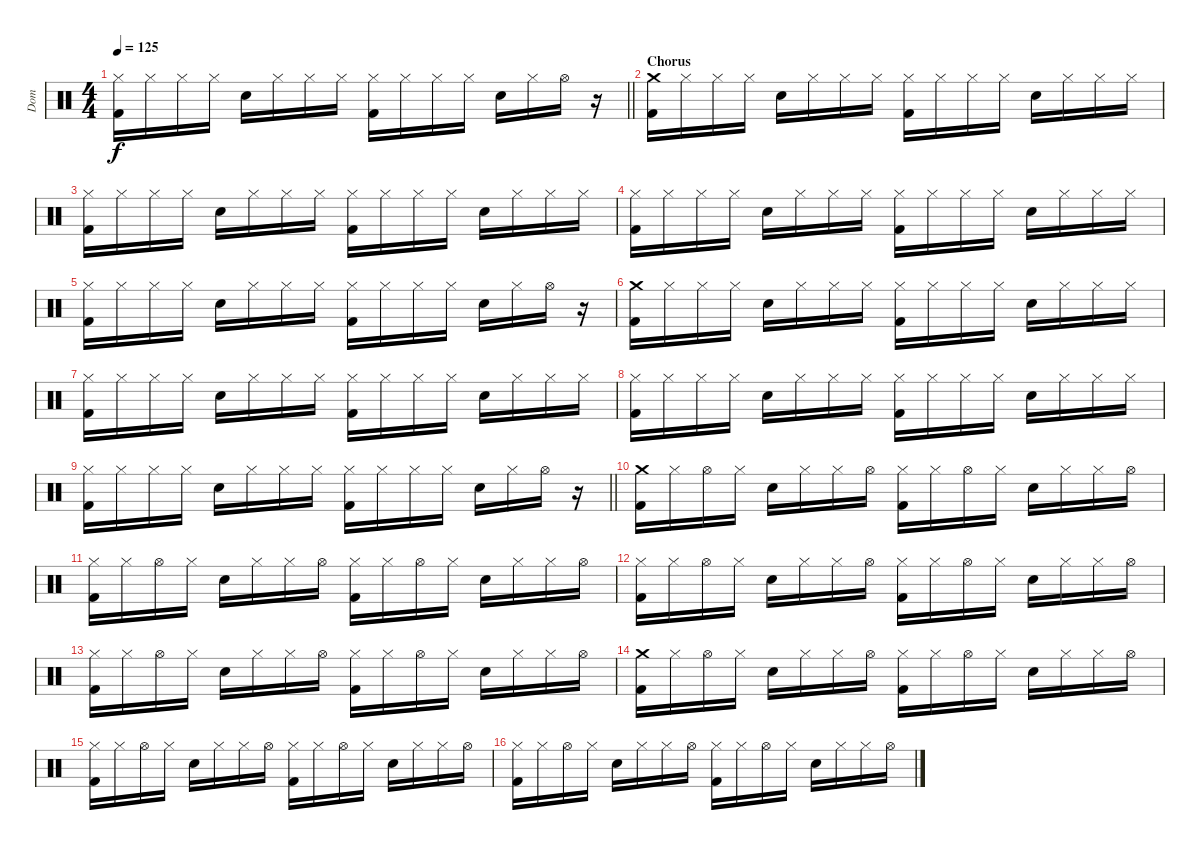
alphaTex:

\track ("Dom" "Dom") {instrument percussion}
\staff {score}
\articulation defaults
\ts (4 4)
\tempo 125
\clef neutral
\barLineRight lightlight
\ks c
("Hi-Hat (closed)" "Kick (hit) 2").16{dy f} "Hi-Hat (closed)".16 "Hi-Hat (closed)".16 "Hi-Hat (closed)".16 "Snare (hit) 2".16 "Hi-Hat (closed)".16 "Hi-Hat (closed)".16 "Hi-Hat (closed)".16 ("Hi-Hat (closed)" "Kick (hit) 2").16 "Hi-Hat (closed)".16 "Hi-Hat (closed)".16 "Hi-Hat (closed)".16 "Snare (hit) 2".16 "Hi-Hat (closed)".16 "Hi-Hat (open)".16 r.16 |
\section ("" "Chorus")
("Crash medium (hit)" "Kick (hit) 2").16 "Hi-Hat (closed)".16 "Hi-Hat (closed)".16 "Hi-Hat (closed)".16 "Snare (hit) 2".16 "Hi-Hat (closed)".16 "Hi-Hat (closed)".16 "Hi-Hat (closed)".16 ("Hi-Hat (closed)" "Kick (hit) 2").16 "Hi-Hat (closed)".16 "Hi-Hat (closed)".16 "Hi-Hat (closed)".16 "Snare (hit) 2".16 "Hi-Hat (closed)".16 "Hi-Hat (closed)".16 "Hi-Hat (closed)".16 |
("Hi-Hat (closed)" "Kick (hit) 2").16 "Hi-Hat (closed)".16 "Hi-Hat (closed)".16 "Hi-Hat (closed)".16 "Snare (hit) 2".16 "Hi-Hat (closed)".16 "Hi-Hat (closed)".16 "Hi-Hat (closed)".16 ("Hi-Hat (closed)" "Kick (hit) 2").16 "Hi-Hat (closed)".16 "Hi-Hat (closed)".16 "Hi-Hat (closed)".16 "Snare (hit) 2".16 "Hi-Hat (closed)".16 "Hi-Hat (closed)".16 "Hi-Hat (closed)".16 |
("Hi-Hat (closed)" "Kick (hit) 2").16 "Hi-Hat (closed)".16 "Hi-Hat (closed)".16 "Hi-Hat (closed)".16 "Snare (hit) 2".16 "Hi-Hat (closed)".16 "Hi-Hat (closed)".16 "Hi-Hat (closed)".16 ("Hi-Hat (closed)" "Kick (hit) 2").16 "Hi-Hat (closed)".16 "Hi-Hat (closed)".16 "Hi-Hat (closed)".16 "Snare (hit) 2".16 "Hi-Hat (closed)".16 "Hi-Hat (closed)".16 "Hi-Hat (closed)".16 |
("Hi-Hat (closed)" "Kick (hit) 2").16 "Hi-Hat (closed)".16 "Hi-Hat (closed)".16 "Hi-Hat (closed)".16 "Snare (hit) 2".16 "Hi-Hat (closed)".16 "Hi-Hat (closed)".16 "Hi-Hat (closed)".16 ("Hi-Hat (closed)" "Kick (hit) 2").16 "Hi-Hat (closed)".16 "Hi-Hat (closed)".16 "Hi-Hat (closed)".16 "Snare (hit) 2".16 "Hi-Hat (closed)".16 "Hi-Hat (open)".16 r.16 |
("Crash medium (hit)" "Kick (hit) 2").16 "Hi-Hat (closed)".16 "Hi-Hat (closed)".16 "Hi-Hat (closed)".16 "Snare (hit) 2".16 "Hi-Hat (closed)".16 "Hi-Hat (closed)".16 "Hi-Hat (closed)".16 ("Hi-Hat (closed)" "Kick (hit) 2").16 "Hi-Hat (closed)".16 "Hi-Hat (closed)".16 "Hi-Hat (closed)".16 "Snare (hit) 2".16 "Hi-Hat (closed)".16 "Hi-Hat (closed)".16 "Hi-Hat (closed)".16 |
("Hi-Hat (closed)" "Kick (hit) 2").16 "Hi-Hat (closed)".16 "Hi-Hat (closed)".16 "Hi-Hat (closed)".16 "Snare (hit) 2".16 "Hi-Hat (closed)".16 "Hi-Hat (closed)".16 "Hi-Hat (closed)".16 ("Hi-Hat (closed)" "Kick (hit) 2").16 "Hi-Hat (closed)".16 "Hi-Hat (closed)".16 "Hi-Hat (closed)".16 "Snare (hit) 2".16 "Hi-Hat (closed)".16 "Hi-Hat (closed)".16 "Hi-Hat (closed)".16 |
("Hi-Hat (closed)" "Kick (hit) 2").16 "Hi-Hat (closed)".16 "Hi-Hat (closed)".16 "Hi-Hat (closed)".16 "Snare (hit) 2".16 "Hi-Hat (closed)".16 "Hi-Hat (closed)".16 "Hi-Hat (closed)".16 ("Hi-Hat (closed)" "Kick (hit) 2").16 "Hi-Hat (closed)".16 "Hi-Hat (closed)".16 "Hi-Hat (closed)".16 "Snare (hit) 2".16 "Hi-Hat (closed)".16 "Hi-Hat (closed)".16 "Hi-Hat (closed)".16 |
\barLineRight lightlight
("Hi-Hat (closed)" "Kick (hit) 2").16 "Hi-Hat (closed)".16 "Hi-Hat (closed)".16 "Hi-Hat (closed)".16 "Snare (hit) 2".16 "Hi-Hat (closed)".16 "Hi-Hat (closed)".16 "Hi-Hat (closed)".16 ("Hi-Hat (closed)" "Kick (hit) 2").16 "Hi-Hat (closed)".16 "Hi-Hat (closed)".16 "Hi-Hat (closed)".16 "Snare (hit) 2".16 "Hi-Hat (closed)".16 "Hi-Hat (open)".16 r.16 |
("Crash medium (hit)" "Kick (hit) 2").16 "Hi-Hat (closed)".16 "Hi-Hat (open)".16 "Hi-Hat (closed)".16 "Snare (hit) 2".16 "Hi-Hat (closed)".16 "Hi-Hat (closed)".16 "Hi-Hat (open)".16 ("Hi-Hat (closed)" "Kick (hit) 2").16 "Hi-Hat (closed)".16 "Hi-Hat (open)".16 "Hi-Hat (closed)".16 "Snare (hit) 2".16 "Hi-Hat (closed)".16 "Hi-Hat (closed)".16 "Hi-Hat (open)".16 |
("Hi-Hat (closed)" "Kick (hit) 2").16 "Hi-Hat (closed)".16 "Hi-Hat (open)".16 "Hi-Hat (closed)".16 "Snare (hit) 2".16 "Hi-Hat (closed)".16 "Hi-Hat (closed)".16 "Hi-Hat (open)".16 ("Hi-Hat (closed)" "Kick (hit) 2").16 "Hi-Hat (closed)".16 "Hi-Hat (open)".16 "Hi-Hat (closed)".16 "Snare (hit) 2".16 "Hi-Hat (closed)".16 "Hi-Hat (closed)".16 "Hi-Hat (open)".16 |
("Hi-Hat (closed)" "Kick (hit) 2").16 "Hi-Hat (closed)".16 "Hi-Hat (open)".16 "Hi-Hat (closed)".16 "Snare (hit) 2".16 "Hi-Hat (closed)".16 "Hi-Hat (closed)".16 "Hi-Hat (open)".16 ("Hi-Hat (closed)" "Kick (hit) 2").16 "Hi-Hat (closed)".16 "Hi-Hat (open)".16 "Hi-Hat (closed)".16 "Snare (hit) 2".16 "Hi-Hat (closed)".16 "Hi-Hat (closed)".16 "Hi-Hat (open)".16 |
("Hi-Hat (closed)" "Kick (hit) 2").16 "Hi-Hat (closed)".16 "Hi-Hat (open)".16 "Hi-Hat (closed)".16 "Snare (hit) 2".16 "Hi-Hat (closed)".16 "Hi-Hat (closed)".16 "Hi-Hat (open)".16 ("Hi-Hat (closed)" "Kick (hit) 2").16 "Hi-Hat (closed)".16 "Hi-Hat (open)".16 "Hi-Hat (closed)".16 "Snare (hit) 2".16 "Hi-Hat (closed)".16 "Hi-Hat (closed)".16 "Hi-Hat (open)".16 |
("Crash medium (hit)" "Kick (hit) 2").16 "Hi-Hat (closed)".16 "Hi-Hat (open)".16 "Hi-Hat (closed)".16 "Snare (hit) 2".16 "Hi-Hat (closed)".16 "Hi-Hat (closed)".16 "Hi-Hat (open)".16 ("Hi-Hat (closed)" "Kick (hit) 2").16 "Hi-Hat (closed)".16 "Hi-Hat (open)".16 "Hi-Hat (closed)".16 "Snare (hit) 2".16 "Hi-Hat (closed)".16 "Hi-Hat (closed)".16 "Hi-Hat (open)".16 |
("Hi-Hat (closed)" "Kick (hit) 2").16 "Hi-Hat (closed)".16 "Hi-Hat (open)".16 "Hi-Hat (closed)".16 "Snare (hit) 2".16 "Hi-Hat (closed)".16 "Hi-Hat (closed)".16 "Hi-Hat (open)".16 ("Hi-Hat (closed)" "Kick (hit) 2").16 "Hi-Hat (closed)".16 "Hi-Hat (open)".16 "Hi-Hat (closed)".16 "Snare (hit) 2".16 "Hi-Hat (closed)".16 "Hi-Hat (closed)".16 "Hi-Hat (open)".16 |
("Hi-Hat (closed)" "Kick (hit) 2").16 "Hi-Hat (closed)".16 "Hi-Hat (open)".16 "Hi-Hat (closed)".16 "Snare (hit) 2".16 "Hi-Hat (closed)".16 "Hi-Hat (closed)".16 "Hi-Hat (open)".16 ("Hi-Hat (closed)" "Kick (hit) 2").16 "Hi-Hat (closed)".16 "Hi-Hat (open)".16 "Hi-Hat (closed)".16 "Snare (hit) 2".16 "Hi-Hat (closed)".16 "Hi-Hat (closed)".16 "Hi-Hat (open)".16
